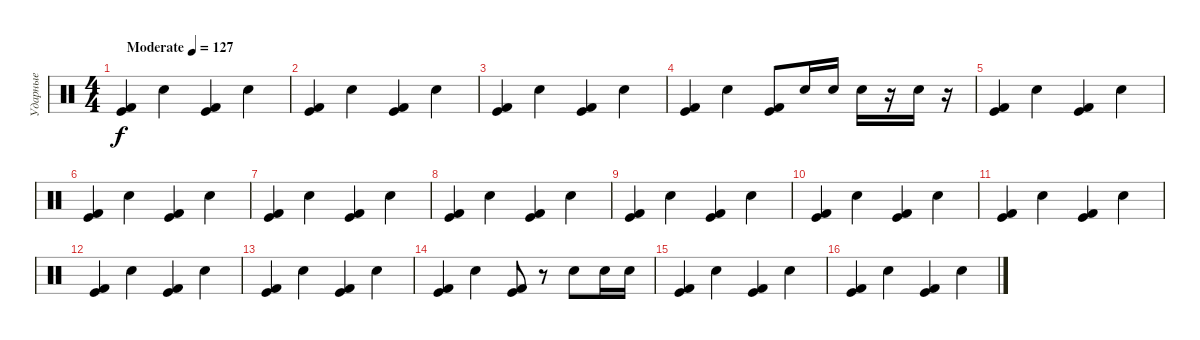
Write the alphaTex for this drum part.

\track ("Ударные" "Ударные") {instrument percussion}
\staff {score}
\articulation defaults
\ts (4 4)
\tempo (127 "Moderate")
\clef neutral
\ks c
("Kick (hit) 2" "Kick (hit)").4{dy f} "Snare (hit) 2".4 ("Kick (hit) 2" "Kick (hit)").4 "Snare (hit) 2".4 |
("Kick (hit) 2" "Kick (hit)").4 "Snare (hit) 2".4 ("Kick (hit) 2" "Kick (hit)").4 "Snare (hit) 2".4 |
("Kick (hit) 2" "Kick (hit)").4 "Snare (hit) 2".4 ("Kick (hit) 2" "Kick (hit)").4 "Snare (hit) 2".4 |
("Kick (hit) 2" "Kick (hit)").4 "Snare (hit) 2".4 ("Kick (hit) 2" "Kick (hit)").8 "Snare (hit) 2".16 "Snare (hit) 2".16 "Snare (hit) 2".16 r.16 "Snare (hit) 2".16 r.16 |
("Kick (hit) 2" "Kick (hit)").4 "Snare (hit) 2".4 ("Kick (hit) 2" "Kick (hit)").4 "Snare (hit) 2".4 |
("Kick (hit) 2" "Kick (hit)").4 "Snare (hit) 2".4 ("Kick (hit) 2" "Kick (hit)").4 "Snare (hit) 2".4 |
("Kick (hit) 2" "Kick (hit)").4 "Snare (hit) 2".4 ("Kick (hit) 2" "Kick (hit)").4 "Snare (hit) 2".4 |
("Kick (hit) 2" "Kick (hit)").4 "Snare (hit) 2".4 ("Kick (hit) 2" "Kick (hit)").4 "Snare (hit) 2".4 |
("Kick (hit) 2" "Kick (hit)").4 "Snare (hit) 2".4 ("Kick (hit) 2" "Kick (hit)").4 "Snare (hit) 2".4 |
("Kick (hit) 2" "Kick (hit)").4 "Snare (hit) 2".4 ("Kick (hit) 2" "Kick (hit)").4 "Snare (hit) 2".4 |
("Kick (hit) 2" "Kick (hit)").4 "Snare (hit) 2".4 ("Kick (hit) 2" "Kick (hit)").4 "Snare (hit) 2".4 |
("Kick (hit) 2" "Kick (hit)").4 "Snare (hit) 2".4 ("Kick (hit) 2" "Kick (hit)").4 "Snare (hit) 2".4 |
("Kick (hit) 2" "Kick (hit)").4 "Snare (hit) 2".4 ("Kick (hit) 2" "Kick (hit)").4 "Snare (hit) 2".4 |
("Kick (hit) 2" "Kick (hit)").4 "Snare (hit) 2".4 ("Kick (hit) 2" "Kick (hit)").8 r.8 "Snare (hit) 2".8 "Snare (hit) 2".16 "Snare (hit) 2".16 |
("Kick (hit) 2" "Kick (hit)").4 "Snare (hit) 2".4 ("Kick (hit) 2" "Kick (hit)").4 "Snare (hit) 2".4 |
("Kick (hit) 2" "Kick (hit)").4 "Snare (hit) 2".4 ("Kick (hit) 2" "Kick (hit)").4 "Snare (hit) 2".4
